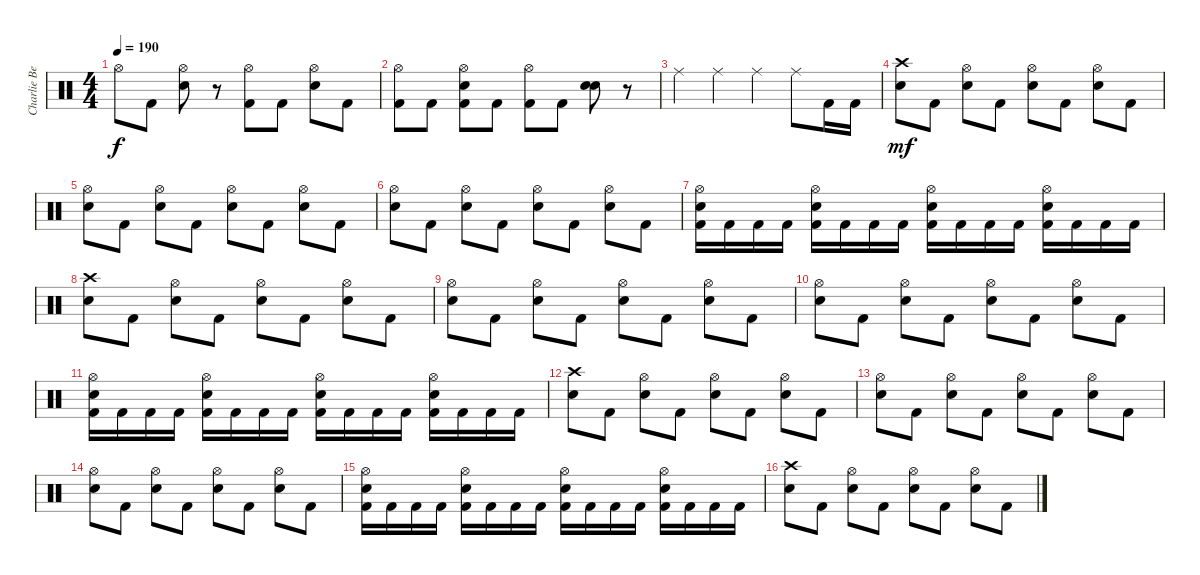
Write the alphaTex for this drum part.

\track ("Charlie Benante" "Charlie Be") {instrument percussion}
\staff {score}
\articulation defaults
\ts (4 4)
\tempo 190
\clef neutral
\ks c "Hi-Hat (open)".8{dy f} "Kick (hit) 2".8
("Snare (hit) 2" "Hi-Hat (open)").8 r.8 ("Kick (hit) 2" "Hi-Hat (open)").8 "Kick (hit) 2".8 ("Snare (hit) 2" "Hi-Hat (open)").8 "Kick (hit) 2".8 |
("Kick (hit) 2" "Hi-Hat (open)").8 "Kick (hit) 2".8 ("Kick (hit) 2" "Hi-Hat (open)" "Snare (hit) 2").8 "Kick (hit) 2".8 ("Kick (hit) 2" "Hi-Hat (open)").8 "Kick (hit) 2".8 ("Snare (hit) 2" "Snare (hit) 2").8{bd 480} r.8 |
"Ride (middle)".4 "Ride (middle)".4 "Ride (middle)".4 "Ride (middle)".8 "Kick (hit) 2".16 "Kick (hit) 2".16 |
("Snare (hit) 2" "Crash high (hit)").8{dy mf} "Kick (hit) 2".8 ("Snare (hit) 2" "Hi-Hat (open)").8 "Kick (hit) 2".8 ("Snare (hit) 2" "Hi-Hat (open)").8 "Kick (hit) 2".8 ("Snare (hit) 2" "Hi-Hat (open)").8 "Kick (hit) 2".8 |
("Snare (hit) 2" "Hi-Hat (open)").8 "Kick (hit) 2".8 ("Snare (hit) 2" "Hi-Hat (open)").8 "Kick (hit) 2".8 ("Snare (hit) 2" "Hi-Hat (open)").8 "Kick (hit) 2".8 ("Snare (hit) 2" "Hi-Hat (open)").8 "Kick (hit) 2".8 |
("Snare (hit) 2" "Hi-Hat (open)").8 "Kick (hit) 2".8 ("Snare (hit) 2" "Hi-Hat (open)").8 "Kick (hit) 2".8 ("Snare (hit) 2" "Hi-Hat (open)").8 "Kick (hit) 2".8 ("Snare (hit) 2" "Hi-Hat (open)").8 "Kick (hit) 2".8 |
("Kick (hit) 2" "Snare (hit) 2" "Hi-Hat (open)").16 "Kick (hit) 2".16 "Kick (hit) 2".16 "Kick (hit) 2".16 ("Kick (hit) 2" "Snare (hit) 2" "Hi-Hat (open)").16 "Kick (hit) 2".16 "Kick (hit) 2".16 "Kick (hit) 2".16 ("Kick (hit) 2" "Snare (hit) 2" "Hi-Hat (open)").16 "Kick (hit) 2".16 "Kick (hit) 2".16 "Kick (hit) 2".16 ("Kick (hit) 2" "Snare (hit) 2" "Hi-Hat (open)").16 "Kick (hit) 2".16 "Kick (hit) 2".16 "Kick (hit) 2".16 |
("Snare (hit) 2" "Crash high (hit)").8 "Kick (hit) 2".8 ("Snare (hit) 2" "Hi-Hat (open)").8 "Kick (hit) 2".8 ("Snare (hit) 2" "Hi-Hat (open)").8 "Kick (hit) 2".8 ("Snare (hit) 2" "Hi-Hat (open)").8 "Kick (hit) 2".8 |
("Snare (hit) 2" "Hi-Hat (open)").8 "Kick (hit) 2".8 ("Snare (hit) 2" "Hi-Hat (open)").8 "Kick (hit) 2".8 ("Snare (hit) 2" "Hi-Hat (open)").8 "Kick (hit) 2".8 ("Snare (hit) 2" "Hi-Hat (open)").8 "Kick (hit) 2".8 |
("Snare (hit) 2" "Hi-Hat (open)").8 "Kick (hit) 2".8 ("Snare (hit) 2" "Hi-Hat (open)").8 "Kick (hit) 2".8 ("Snare (hit) 2" "Hi-Hat (open)").8 "Kick (hit) 2".8 ("Snare (hit) 2" "Hi-Hat (open)").8 "Kick (hit) 2".8 |
("Kick (hit) 2" "Snare (hit) 2" "Hi-Hat (open)").16 "Kick (hit) 2".16 "Kick (hit) 2".16 "Kick (hit) 2".16 ("Kick (hit) 2" "Snare (hit) 2" "Hi-Hat (open)").16 "Kick (hit) 2".16 "Kick (hit) 2".16 "Kick (hit) 2".16 ("Kick (hit) 2" "Snare (hit) 2" "Hi-Hat (open)").16 "Kick (hit) 2".16 "Kick (hit) 2".16 "Kick (hit) 2".16 ("Kick (hit) 2" "Snare (hit) 2" "Hi-Hat (open)").16 "Kick (hit) 2".16 "Kick (hit) 2".16 "Kick (hit) 2".16 |
("Snare (hit) 2" "Crash high (hit)").8 "Kick (hit) 2".8 ("Snare (hit) 2" "Hi-Hat (open)").8 "Kick (hit) 2".8 ("Snare (hit) 2" "Hi-Hat (open)").8 "Kick (hit) 2".8 ("Snare (hit) 2" "Hi-Hat (open)").8 "Kick (hit) 2".8 |
("Snare (hit) 2" "Hi-Hat (open)").8 "Kick (hit) 2".8 ("Snare (hit) 2" "Hi-Hat (open)").8 "Kick (hit) 2".8 ("Snare (hit) 2" "Hi-Hat (open)").8 "Kick (hit) 2".8 ("Snare (hit) 2" "Hi-Hat (open)").8 "Kick (hit) 2".8 |
("Snare (hit) 2" "Hi-Hat (open)").8 "Kick (hit) 2".8 ("Snare (hit) 2" "Hi-Hat (open)").8 "Kick (hit) 2".8 ("Snare (hit) 2" "Hi-Hat (open)").8 "Kick (hit) 2".8 ("Snare (hit) 2" "Hi-Hat (open)").8 "Kick (hit) 2".8 |
("Kick (hit) 2" "Snare (hit) 2" "Hi-Hat (open)").16 "Kick (hit) 2".16 "Kick (hit) 2".16 "Kick (hit) 2".16 ("Kick (hit) 2" "Snare (hit) 2" "Hi-Hat (open)").16 "Kick (hit) 2".16 "Kick (hit) 2".16 "Kick (hit) 2".16 ("Kick (hit) 2" "Snare (hit) 2" "Hi-Hat (open)").16 "Kick (hit) 2".16 "Kick (hit) 2".16 "Kick (hit) 2".16 ("Kick (hit) 2" "Snare (hit) 2" "Hi-Hat (open)").16 "Kick (hit) 2".16 "Kick (hit) 2".16 "Kick (hit) 2".16 |
("Snare (hit) 2" "Crash high (hit)").8 "Kick (hit) 2".8 ("Snare (hit) 2" "Hi-Hat (open)").8 "Kick (hit) 2".8 ("Snare (hit) 2" "Hi-Hat (open)").8 "Kick (hit) 2".8 ("Snare (hit) 2" "Hi-Hat (open)").8 "Kick (hit) 2".8
